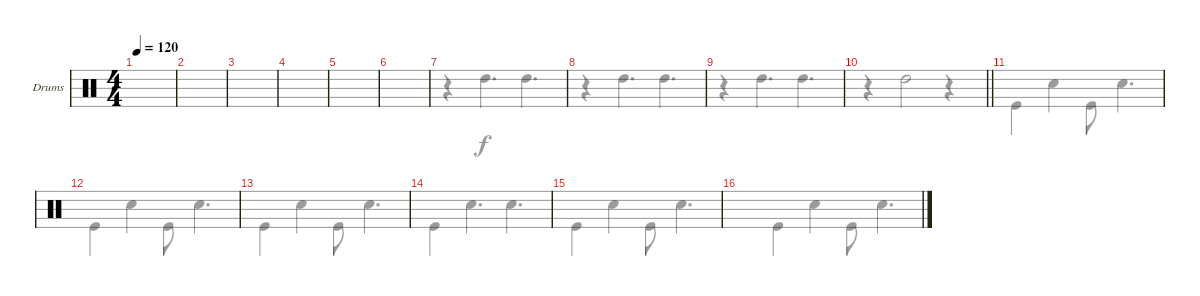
\defaultSystemsLayout 4
\bracketExtendMode groupsimilarinstruments
\firstSystemTrackNameOrientation horizontal
\otherSystemsTrackNameOrientation horizontal
\track ("Drums" "Drums") {instrument percussion}
\staff {score}
\articulation defaults
\voice
\ts (4 4)
\scale
0.550912
\tempo 120
\accidentals auto
\clef neutral
\ottava regular
\simile none
\scale
0.5
\ks aminor
|
\scale
0.448955 |
\scale
0.505714 |
\scale
0.494302 |
\scale
0.5 |
\scale
0.5 |
\scale
0.5 |
\scale
0.5 |
\scale
0.4936 |
\scale
0.506683
\barLineRight lightlight
|
\scale
0.537018 |
\scale
0.462924 |
\scale
0.512857 |
\scale
0.487179 |
\scale
0.539874 |
\scale
0.460075
\voice
\clef neutral
\ottava regular
\simile none
\scale
0.5
\ks aminor
|
|
|
|
|
|
r.4 "High Tom (hit)".4{d} "High Tom (hit)".4{d} |
r.4 "High Tom (hit)".4{d} "High Tom (hit)".4{d} |
r.4 "High Tom (hit)".4{d} "High Tom (hit)".4{d} |
\barLineRight lightlight
r.4 "High Tom (hit)".2 r.4 |
"Kick (hit)".4{dy f} "Snare (hit) 2".4 "Kick (hit)".8 "Snare (hit) 2".4{d} |
"Kick (hit)".4 "Snare (hit) 2".4 "Kick (hit)".8 "Snare (hit) 2".4{d} |
"Kick (hit)".4 "Snare (hit) 2".4 "Kick (hit)".8 "Snare (hit) 2".4{d} |
"Kick (hit)".4 "Snare (hit) 2".4{d} "Snare (hit) 2".4{d} |
"Kick (hit)".4 "Snare (hit) 2".4 "Kick (hit)".8 "Snare (hit) 2".4{d} |
"Kick (hit)".4 "Snare (hit) 2".4 "Kick (hit)".8 "Snare (hit) 2".4{d}
